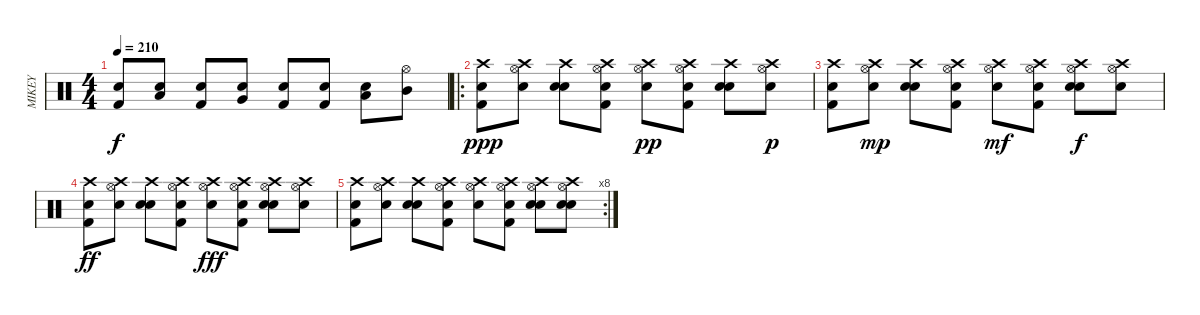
\track ("MIKEY" "MIKEY") {instrument percussion}
\staff {score}
\articulation defaults
\ts (4 4)
\tempo 210
\clef neutral
\ks c
("Kick (hit) 2" "Electric Snare (hit)").8{dy f} ("Low Tom (hit)" "Electric Snare (hit)").8 ("Kick (hit) 2" "Electric Snare (hit)").8 ("Very Low Tom (hit)" "Electric Snare (hit)").8 ("Kick (hit) 2" "Electric Snare (hit)").8 ("Kick (hit) 2" "Electric Snare (hit)").8 ("Low Tom (hit)" "Electric Snare (hit)").8 ("Mid Tom (hit)" "Hi-Hat (open)").8 |
\ro
("Snare (hit) 2" "Crash high (hit)" "Kick (hit) 2").8{dy ppp} ("Snare (hit) 2" "Crash high (hit)" "Hi-Hat (open)").8 ("Snare (hit) 2" "Crash high (hit)" "Electric Snare (hit)").8 ("Snare (hit) 2" "Crash high (hit)" "Kick (hit) 2" "Hi-Hat (open)").8 ("Snare (hit) 2" "Crash high (hit)" "Hi-Hat (open)").8{dy pp} ("Snare (hit) 2" "Crash high (hit)" "Kick (hit) 2" "Hi-Hat (open)").8 ("Snare (hit) 2" "Crash high (hit)" "Electric Snare (hit)").8 ("Snare (hit) 2" "Crash high (hit)" "Hi-Hat (open)").8{dy p} |
("Snare (hit) 2" "Crash high (hit)" "Kick (hit) 2").8 ("Snare (hit) 2" "Crash high (hit)" "Hi-Hat (open)").8{dy mp} ("Snare (hit) 2" "Crash high (hit)" "Electric Snare (hit)").8 ("Snare (hit) 2" "Crash high (hit)" "Kick (hit) 2" "Hi-Hat (open)").8 ("Snare (hit) 2" "Crash high (hit)" "Hi-Hat (open)").8{dy mf} ("Snare (hit) 2" "Crash high (hit)" "Kick (hit) 2" "Hi-Hat (open)").8 ("Snare (hit) 2" "Crash high (hit)" "Electric Snare (hit)" "Hi-Hat (open)").8{dy f} ("Snare (hit) 2" "Crash high (hit)" "Hi-Hat (open)").8 |
("Snare (hit) 2" "Crash high (hit)" "Kick (hit) 2").8{dy ff} ("Snare (hit) 2" "Crash high (hit)" "Hi-Hat (open)").8 ("Snare (hit) 2" "Crash high (hit)" "Electric Snare (hit)").8 ("Snare (hit) 2" "Crash high (hit)" "Kick (hit) 2" "Hi-Hat (open)").8 ("Snare (hit) 2" "Crash high (hit)" "Hi-Hat (open)").8{dy fff} ("Snare (hit) 2" "Crash high (hit)" "Kick (hit) 2" "Hi-Hat (open)").8 ("Snare (hit) 2" "Crash high (hit)" "Electric Snare (hit)" "Hi-Hat (open)").8 ("Snare (hit) 2" "Crash high (hit)" "Hi-Hat (open)").8 |
\rc 8
("Snare (hit) 2" "Crash high (hit)" "Kick (hit) 2").8 ("Snare (hit) 2" "Crash high (hit)" "Hi-Hat (open)").8 ("Snare (hit) 2" "Crash high (hit)" "Electric Snare (hit)").8 ("Snare (hit) 2" "Crash high (hit)" "Kick (hit) 2" "Hi-Hat (open)").8 ("Snare (hit) 2" "Crash high (hit)" "Hi-Hat (open)").8 ("Snare (hit) 2" "Crash high (hit)" "Kick (hit) 2" "Hi-Hat (open)").8 ("Snare (hit) 2" "Crash high (hit)" "Electric Snare (hit)" "Hi-Hat (open)").8 ("Snare (hit) 2" "Crash high (hit)" "Electric Snare (hit)" "Hi-Hat (open)").8
